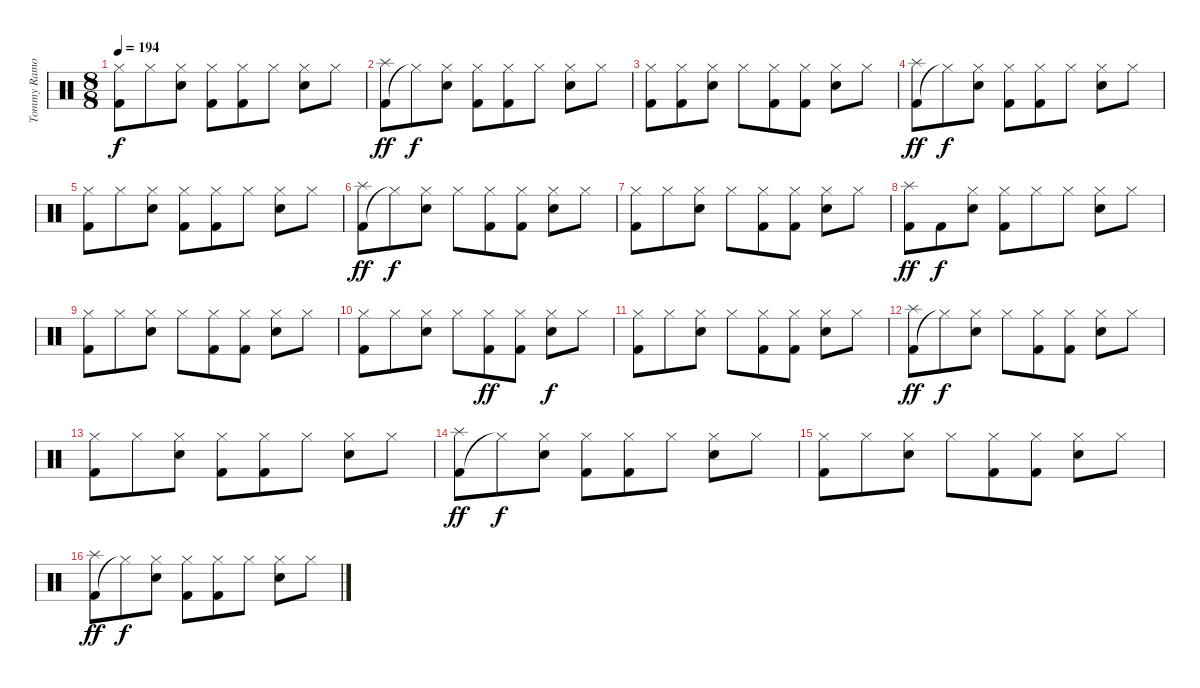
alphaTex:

\track ("Tommy Ramone - Drums" "Tommy Ramo") {instrument percussion}
\staff {score}
\articulation defaults
\ts (8 8)
\tempo 194
\clef neutral
\ks c
("Kick (hit) 2" "Hi-Hat (closed)").8{dy f} "Hi-Hat (closed)".8 ("Electric Snare (hit)" "Hi-Hat (closed)").8 ("Kick (hit) 2" "Hi-Hat (closed)").8 ("Kick (hit) 2" "Hi-Hat (closed)").8 "Hi-Hat (closed)".8 ("Electric Snare (hit)" "Hi-Hat (closed)").8 "Hi-Hat (closed)".8 |
("Kick (hit) 2" "Splash (hit)").8{dy ff} "Hi-Hat (closed)"{t}.8{dy f} ("Electric Snare (hit)" "Hi-Hat (closed)").8 ("Kick (hit) 2" "Hi-Hat (closed)").8 ("Kick (hit) 2" "Hi-Hat (closed)").8 "Hi-Hat (closed)".8 ("Electric Snare (hit)" "Hi-Hat (closed)").8 "Hi-Hat (closed)".8 |
("Kick (hit) 2" "Hi-Hat (closed)").8 ("Kick (hit) 2" "Hi-Hat (closed)").8 ("Electric Snare (hit)" "Hi-Hat (closed)").8 "Hi-Hat (closed)".8 ("Kick (hit) 2" "Hi-Hat (closed)").8 ("Kick (hit) 2" "Hi-Hat (closed)").8 ("Electric Snare (hit)" "Hi-Hat (closed)").8 "Hi-Hat (closed)".8 |
("Kick (hit) 2" "Splash (hit)").8{dy ff} "Hi-Hat (closed)"{t}.8{dy f} ("Electric Snare (hit)" "Hi-Hat (closed)").8 ("Kick (hit) 2" "Hi-Hat (closed)").8 ("Kick (hit) 2" "Hi-Hat (closed)").8 "Hi-Hat (closed)".8 ("Electric Snare (hit)" "Hi-Hat (closed)").8 "Hi-Hat (closed)".8 |
("Kick (hit) 2" "Hi-Hat (closed)").8 "Hi-Hat (closed)".8 ("Electric Snare (hit)" "Hi-Hat (closed)").8 ("Kick (hit) 2" "Hi-Hat (closed)").8 ("Kick (hit) 2" "Hi-Hat (closed)").8 "Hi-Hat (closed)".8 ("Electric Snare (hit)" "Hi-Hat (closed)").8 "Hi-Hat (closed)".8 |
("Kick (hit) 2" "Splash (hit)").8{dy ff} "Hi-Hat (closed)"{t}.8{dy f} ("Electric Snare (hit)" "Hi-Hat (closed)").8 "Hi-Hat (closed)".8 ("Kick (hit) 2" "Hi-Hat (closed)").8 ("Kick (hit) 2" "Hi-Hat (closed)").8 ("Electric Snare (hit)" "Hi-Hat (closed)").8 "Hi-Hat (closed)".8 |
("Kick (hit) 2" "Hi-Hat (closed)").8 "Hi-Hat (closed)".8 ("Electric Snare (hit)" "Hi-Hat (closed)").8 "Hi-Hat (closed)".8 ("Kick (hit) 2" "Hi-Hat (closed)").8 ("Kick (hit) 2" "Hi-Hat (closed)").8 ("Electric Snare (hit)" "Hi-Hat (closed)").8 "Hi-Hat (closed)".8 |
("Kick (hit) 2" "Splash (hit)").8{dy ff} "Kick (hit) 2".8{dy f} ("Electric Snare (hit)" "Hi-Hat (closed)").8 ("Kick (hit) 2" "Hi-Hat (closed)").8 "Hi-Hat (closed)".8 "Hi-Hat (closed)".8 ("Electric Snare (hit)" "Hi-Hat (closed)").8 "Hi-Hat (closed)".8 |
("Kick (hit) 2" "Hi-Hat (closed)").8 "Hi-Hat (closed)".8 ("Electric Snare (hit)" "Hi-Hat (closed)").8 "Hi-Hat (closed)".8 ("Kick (hit) 2" "Hi-Hat (closed)").8 ("Kick (hit) 2" "Hi-Hat (closed)").8 ("Electric Snare (hit)" "Hi-Hat (closed)").8 "Hi-Hat (closed)".8 |
("Kick (hit) 2" "Hi-Hat (closed)").8 "Hi-Hat (closed)".8 ("Electric Snare (hit)" "Hi-Hat (closed)").8 "Hi-Hat (closed)".8 ("Kick (hit) 2" "Hi-Hat (closed)").8{dy ff} ("Kick (hit) 2" "Hi-Hat (closed)").8 ("Electric Snare (hit)" "Hi-Hat (closed)").8{dy f} "Hi-Hat (closed)".8 |
("Kick (hit) 2" "Hi-Hat (closed)").8 "Hi-Hat (closed)".8 ("Electric Snare (hit)" "Hi-Hat (closed)").8 "Hi-Hat (closed)".8 ("Kick (hit) 2" "Hi-Hat (closed)").8 ("Kick (hit) 2" "Hi-Hat (closed)").8 ("Electric Snare (hit)" "Hi-Hat (closed)").8 "Hi-Hat (closed)".8 |
("Kick (hit) 2" "Splash (hit)").8{dy ff} "Hi-Hat (closed)"{t}.8{dy f} ("Electric Snare (hit)" "Hi-Hat (closed)").8 "Hi-Hat (closed)".8 ("Kick (hit) 2" "Hi-Hat (closed)").8 ("Kick (hit) 2" "Hi-Hat (closed)").8 ("Electric Snare (hit)" "Hi-Hat (closed)").8 "Hi-Hat (closed)".8 |
("Kick (hit) 2" "Hi-Hat (closed)").8 "Hi-Hat (closed)".8 ("Electric Snare (hit)" "Hi-Hat (closed)").8 ("Kick (hit) 2" "Hi-Hat (closed)").8 ("Kick (hit) 2" "Hi-Hat (closed)").8 "Hi-Hat (closed)".8 ("Electric Snare (hit)" "Hi-Hat (closed)").8 "Hi-Hat (closed)".8 |
("Kick (hit) 2" "Splash (hit)").8{dy ff} "Hi-Hat (closed)"{t}.8{dy f} ("Electric Snare (hit)" "Hi-Hat (closed)").8 ("Kick (hit) 2" "Hi-Hat (closed)").8 ("Kick (hit) 2" "Hi-Hat (closed)").8 "Hi-Hat (closed)".8 ("Electric Snare (hit)" "Hi-Hat (closed)").8 "Hi-Hat (closed)".8 |
("Kick (hit) 2" "Hi-Hat (closed)").8 "Hi-Hat (closed)".8 ("Electric Snare (hit)" "Hi-Hat (closed)").8 "Hi-Hat (closed)".8 ("Kick (hit) 2" "Hi-Hat (closed)").8 ("Kick (hit) 2" "Hi-Hat (closed)").8 ("Electric Snare (hit)" "Hi-Hat (closed)").8 "Hi-Hat (closed)".8 |
("Kick (hit) 2" "Splash (hit)").8{dy ff} "Hi-Hat (closed)"{t}.8{dy f} ("Electric Snare (hit)" "Hi-Hat (closed)").8 ("Kick (hit) 2" "Hi-Hat (closed)").8 ("Kick (hit) 2" "Hi-Hat (closed)").8 "Hi-Hat (closed)".8 ("Electric Snare (hit)" "Hi-Hat (closed)").8 "Hi-Hat (closed)".8
